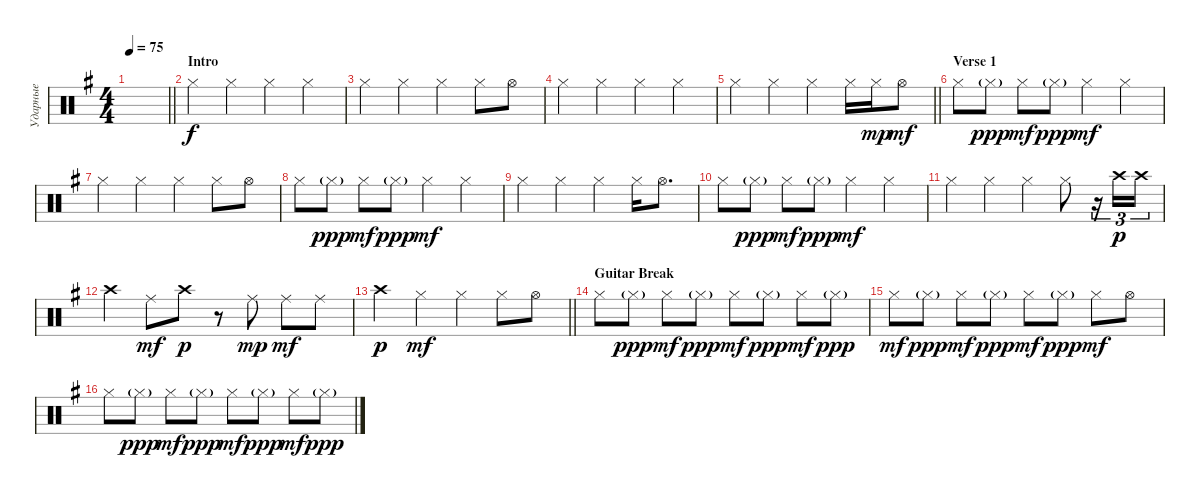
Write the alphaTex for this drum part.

\track ("Ударные" "Ударные") {instrument percussion}
\staff {score}
\articulation defaults
\ts (4 4)
\tempo 75
\clef neutral
\barLineRight lightlight
\ks eminor
|
\section ("" "Intro")
"Hi-Hat (closed)".4 "Hi-Hat (closed)".4 "Hi-Hat (closed)".4 "Hi-Hat (closed)".4 |
"Hi-Hat (closed)".4 "Hi-Hat (closed)".4 "Hi-Hat (closed)".4 "Hi-Hat (closed)".8 "Hi-Hat (open)".8 |
"Hi-Hat (closed)".4 "Hi-Hat (closed)".4 "Hi-Hat (closed)".4 "Hi-Hat (closed)".4 |
\barLineRight lightlight "Hi-Hat (closed)".4 "Hi-Hat (closed)".4 "Hi-Hat (closed)".4 "Hi-Hat (closed)".16 "Hi-Hat (closed)".16{dy mp} "Hi-Hat (open)".8{dy mf}
|
\section ("" "Verse 1")
"Hi-Hat (closed)".8 "Hi-Hat (closed)"{g}.8{dy ppp} "Hi-Hat (closed)".8{dy mf} "Hi-Hat (closed)"{g}.8{dy ppp} "Hi-Hat (closed)".4{dy mf} "Hi-Hat (closed)".4 |
"Hi-Hat (closed)".4 "Hi-Hat (closed)".4 "Hi-Hat (closed)".4 "Hi-Hat (closed)".8 "Hi-Hat (open)".8 |
"Hi-Hat (closed)".8 "Hi-Hat (closed)"{g}.8{dy ppp} "Hi-Hat (closed)".8{dy mf} "Hi-Hat (closed)"{g}.8{dy ppp} "Hi-Hat (closed)".4{dy mf} "Hi-Hat (closed)".4 |
"Hi-Hat (closed)".4 "Hi-Hat (closed)".4 "Hi-Hat (closed)".4 "Hi-Hat (closed)".16 "Hi-Hat (open)".8{d} |
"Hi-Hat (closed)".8 "Hi-Hat (closed)"{g}.8{dy ppp} "Hi-Hat (closed)".8{dy mf} "Hi-Hat (closed)"{g}.8{dy ppp} "Hi-Hat (closed)".4{dy mf} "Hi-Hat (closed)".4 |
"Hi-Hat (closed)".4 "Hi-Hat (closed)".4 "Hi-Hat (closed)".4 "Hi-Hat (closed)".8 r.16{tu (3 2)} "Crash high (hit)".16{tu (3 2) dy p} "Crash high (hit)".16{tu (3 2)} |
"Crash high (hit)".4 "Ride (middle)".8{dy mf} "Crash high (hit)".8{dy p} r.8 "Ride (middle)".8{dy mp} "Ride (middle)".8{dy mf} "Ride (middle)".8 |
\barLineRight lightlight "Crash high (hit)".4{dy p} "Hi-Hat (closed)".4{dy mf} "Hi-Hat (closed)".4 "Hi-Hat (closed)".8 "Hi-Hat (open)".8
|
\section ("" "Guitar Break")
"Hi-Hat (closed)".8 "Hi-Hat (closed)"{g}.8{dy ppp} "Hi-Hat (closed)".8{dy mf} "Hi-Hat (closed)"{g}.8{dy ppp} "Hi-Hat (closed)".8{dy mf} "Hi-Hat (closed)"{g}.8{dy ppp} "Hi-Hat (closed)".8{dy mf} "Hi-Hat (closed)"{g}.8{dy ppp} |
"Hi-Hat (closed)".8{dy mf} "Hi-Hat (closed)"{g}.8{dy ppp} "Hi-Hat (closed)".8{dy mf} "Hi-Hat (closed)"{g}.8{dy ppp} "Hi-Hat (closed)".8{dy mf} "Hi-Hat (closed)"{g}.8{dy ppp} "Hi-Hat (closed)".8{dy mf} "Hi-Hat (open)".8 |
"Hi-Hat (closed)".8 "Hi-Hat (closed)"{g}.8{dy ppp} "Hi-Hat (closed)".8{dy mf} "Hi-Hat (closed)"{g}.8{dy ppp} "Hi-Hat (closed)".8{dy mf} "Hi-Hat (closed)"{g}.8{dy ppp} "Hi-Hat (closed)".8{dy mf} "Hi-Hat (closed)"{g}.8{dy ppp}
